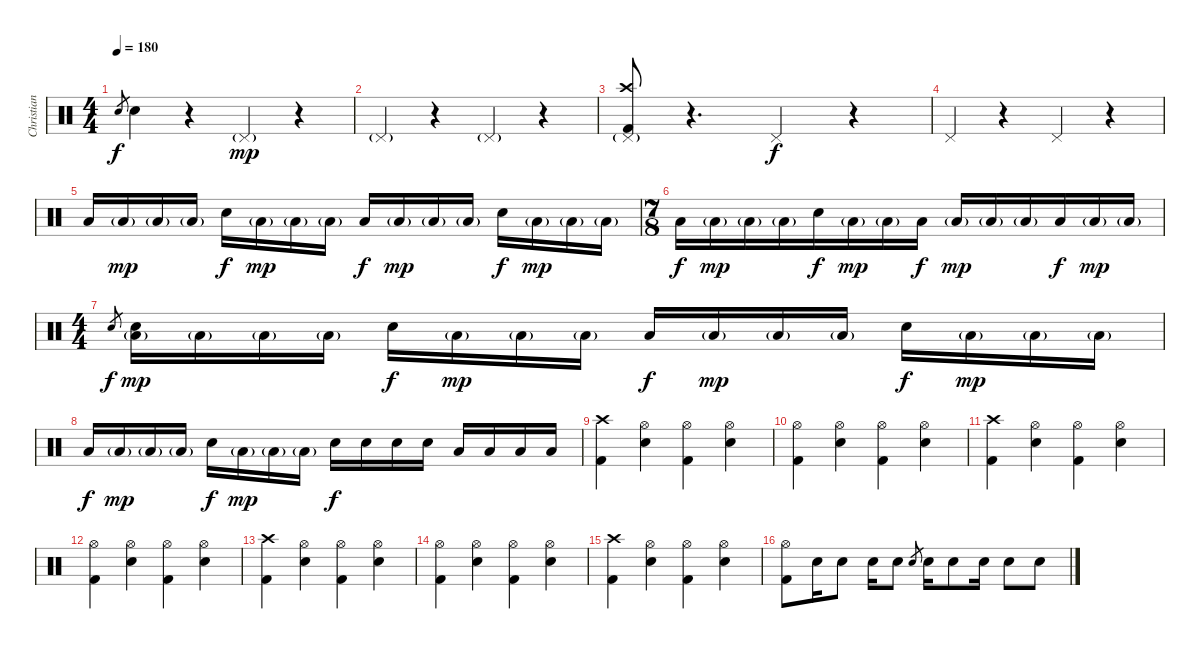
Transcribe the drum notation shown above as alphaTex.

\track ("Christian Meyer" "Christian ") {instrument percussion}
\staff {score}
\articulation defaults
\ts (4 4)
\tempo 180
\clef neutral
\ks c "Electric Snare (hit)".8{gr dy f} "Electric Snare (hit)".4
r.4 "Pedal Hi-Hat (hit)"{g}.4{dy mp} r.4 |
"Pedal Hi-Hat (hit)"{g}.4 r.4 "Pedal Hi-Hat (hit)"{g}.4 r.4 |
("Pedal Hi-Hat (hit)"{g} "Crash high (hit)" "Kick (hit) 2").8 r.4{d volume 0} "Pedal Hi-Hat (hit)".4{dy f volume 7} r.4 |
"Pedal Hi-Hat (hit)".4 r.4 "Pedal Hi-Hat (hit)".4 r.4 |
"Low Floor Tom (hit)".16{volume 14} "Low Floor Tom (hit)"{g}.16{dy mp} "Low Floor Tom (hit)"{g}.16 "Low Floor Tom (hit)"{g}.16 "Electric Snare (hit)".16{dy f} "Low Floor Tom (hit)"{g}.16{dy mp} "Low Floor Tom (hit)"{g}.16 "Low Floor Tom (hit)"{g}.16 "Low Floor Tom (hit)".16{dy f} "Low Floor Tom (hit)"{g}.16{dy mp} "Low Floor Tom (hit)"{g}.16 "Low Floor Tom (hit)"{g}.16 "Electric Snare (hit)".16{dy f} "Low Floor Tom (hit)"{g}.16{dy mp} "Low Floor Tom (hit)"{g}.16 "Low Floor Tom (hit)"{g}.16 |
\ts (7 8)
"Low Floor Tom (hit)".16{dy f} "Low Floor Tom (hit)"{g}.16{dy mp} "Low Floor Tom (hit)"{g}.16 "Low Floor Tom (hit)"{g}.16 "Electric Snare (hit)".16{dy f} "Low Floor Tom (hit)"{g}.16{dy mp} "Low Floor Tom (hit)"{g}.16 "Low Floor Tom (hit)".16{dy f} "Low Floor Tom (hit)"{g}.16{dy mp} "Low Floor Tom (hit)"{g}.16 "Low Floor Tom (hit)"{g}.16 "Low Floor Tom (hit)".16{dy f} "Low Floor Tom (hit)"{g}.16{dy mp} "Low Floor Tom (hit)"{g}.16 |
\ts (4 4)
"Electric Snare (hit)".8{gr dy f} ("Electric Snare (hit)" "Low Floor Tom (hit)"{g}).16{dy mp volume 14} "Low Floor Tom (hit)"{g}.16 "Low Floor Tom (hit)"{g}.16 "Low Floor Tom (hit)"{g}.16 "Electric Snare (hit)".16{dy f} "Low Floor Tom (hit)"{g}.16{dy mp} "Low Floor Tom (hit)"{g}.16 "Low Floor Tom (hit)"{g}.16 "Low Floor Tom (hit)".16{dy f} "Low Floor Tom (hit)"{g}.16{dy mp} "Low Floor Tom (hit)"{g}.16 "Low Floor Tom (hit)"{g}.16 "Electric Snare (hit)".16{dy f} "Low Floor Tom (hit)"{g}.16{dy mp} "Low Floor Tom (hit)"{g}.16 "Low Floor Tom (hit)"{g}.16 |
"Low Floor Tom (hit)".16{dy f} "Low Floor Tom (hit)"{g}.16{dy mp} "Low Floor Tom (hit)"{g}.16 "Low Floor Tom (hit)"{g}.16 "Electric Snare (hit)".16{dy f} "Low Floor Tom (hit)"{g}.16{dy mp} "Low Floor Tom (hit)"{g}.16 "Low Floor Tom (hit)"{g}.16 "Electric Snare (hit)".16{dy f} "Electric Snare (hit)".16 "Electric Snare (hit)".16 "Electric Snare (hit)".16 "Low Tom (hit)".16 "Low Tom (hit)".16 "Low Tom (hit)".16 "Low Tom (hit)".16 |
("Crash high (hit)" "Kick (hit) 2").4 ("Hi-Hat (open)" "Electric Snare (hit)").4 ("Hi-Hat (open)" "Kick (hit) 2").4 ("Hi-Hat (open)" "Electric Snare (hit)").4 |
("Hi-Hat (open)" "Kick (hit) 2").4 ("Hi-Hat (open)" "Electric Snare (hit)").4 ("Hi-Hat (open)" "Kick (hit) 2").4 ("Hi-Hat (open)" "Electric Snare (hit)").4 |
("Crash high (hit)" "Kick (hit) 2").4 ("Hi-Hat (open)" "Electric Snare (hit)").4 ("Hi-Hat (open)" "Kick (hit) 2").4 ("Hi-Hat (open)" "Electric Snare (hit)").4 |
("Hi-Hat (open)" "Kick (hit) 2").4 ("Hi-Hat (open)" "Electric Snare (hit)").4 ("Hi-Hat (open)" "Kick (hit) 2").4 ("Hi-Hat (open)" "Electric Snare (hit)").4 |
("Crash high (hit)" "Kick (hit) 2").4 ("Hi-Hat (open)" "Electric Snare (hit)").4 ("Hi-Hat (open)" "Kick (hit) 2").4 ("Hi-Hat (open)" "Electric Snare (hit)").4 |
("Hi-Hat (open)" "Kick (hit) 2").4 ("Hi-Hat (open)" "Electric Snare (hit)").4 ("Hi-Hat (open)" "Kick (hit) 2").4 ("Hi-Hat (open)" "Electric Snare (hit)").4 |
("Crash high (hit)" "Kick (hit) 2").4 ("Hi-Hat (open)" "Electric Snare (hit)").4 ("Hi-Hat (open)" "Kick (hit) 2").4 ("Hi-Hat (open)" "Electric Snare (hit)").4 |
("Hi-Hat (open)" "Kick (hit) 2").8 "Electric Snare (hit)".16 "Electric Snare (hit)".8 "Electric Snare (hit)".16 "Electric Snare (hit)".8 "Electric Snare (hit)".8{gr} "Electric Snare (hit)".16 "Electric Snare (hit)".8 "Electric Snare (hit)".16 "Electric Snare (hit)".8 "Electric Snare (hit)".8
